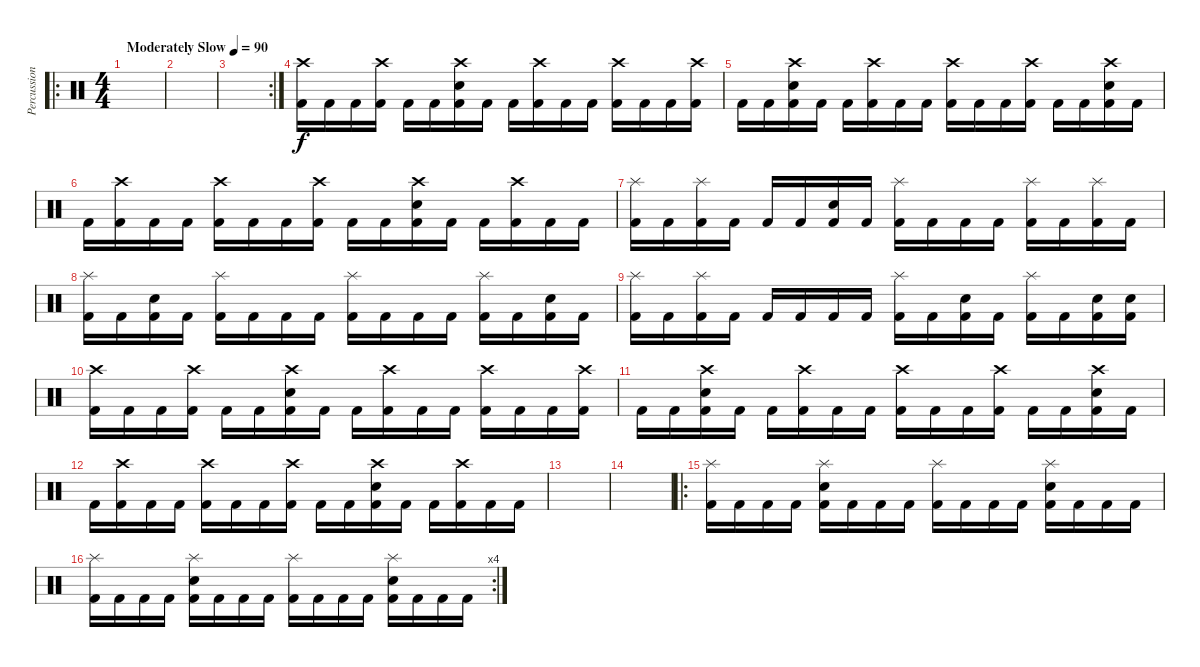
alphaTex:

\track ("Percussion" "Percussion") {instrument percussion}
\staff {score}
\articulation defaults
\ro
\ts (4 4)
\tempo (90 "Moderately Slow")
\clef neutral
\ks c
|
|
\rc 2
|
("Crash high (hit)" "Kick (hit) 2").16 "Kick (hit) 2".16 "Kick (hit) 2".16 ("Crash high (hit)" "Kick (hit) 2").16 "Kick (hit) 2".16 "Kick (hit) 2".16 ("Crash high (hit)" "Snare (hit) 2" "Kick (hit) 2").16 "Kick (hit) 2".16 "Kick (hit) 2".16 ("Crash high (hit)" "Kick (hit) 2").16 "Kick (hit) 2".16 "Kick (hit) 2".16 ("Crash high (hit)" "Kick (hit) 2").16 "Kick (hit) 2".16 "Kick (hit) 2".16 ("Crash high (hit)" "Kick (hit) 2").16 |
"Kick (hit) 2".16 "Kick (hit) 2".16 ("Crash high (hit)" "Snare (hit) 2" "Kick (hit) 2").16 "Kick (hit) 2".16 "Kick (hit) 2".16 ("Crash high (hit)" "Kick (hit) 2").16 "Kick (hit) 2".16 "Kick (hit) 2".16 ("Crash high (hit)" "Kick (hit) 2").16 "Kick (hit) 2".16 "Kick (hit) 2".16 ("Crash high (hit)" "Kick (hit) 2").16 "Kick (hit) 2".16 "Kick (hit) 2".16 ("Crash high (hit)" "Snare (hit) 2" "Kick (hit) 2").16 "Kick (hit) 2".16 |
"Kick (hit) 2".16 ("Crash high (hit)" "Kick (hit) 2").16 "Kick (hit) 2".16 "Kick (hit) 2".16 ("Crash high (hit)" "Kick (hit) 2").16 "Kick (hit) 2".16 "Kick (hit) 2".16 ("Crash high (hit)" "Kick (hit) 2").16 "Kick (hit) 2".16 "Kick (hit) 2".16 ("Crash high (hit)" "Snare (hit) 2" "Kick (hit) 2").16 "Kick (hit) 2".16 "Kick (hit) 2".16 ("Crash high (hit)" "Kick (hit) 2").16 "Kick (hit) 2".16 "Kick (hit) 2".16 |
("Splash (hit)" "Kick (hit) 2").16 "Kick (hit) 2".16 ("Splash (hit)" "Kick (hit) 2").16 "Kick (hit) 2".16 "Kick (hit) 2".16 "Kick (hit) 2".16 ("Snare (hit) 2" "Kick (hit) 2").16 "Kick (hit) 2".16 ("Splash (hit)" "Kick (hit) 2").16 "Kick (hit) 2".16 "Kick (hit) 2".16 "Kick (hit) 2".16 ("Splash (hit)" "Kick (hit) 2").16 "Kick (hit) 2".16 ("Splash (hit)" "Kick (hit) 2").16 "Kick (hit) 2".16 |
("Splash (hit)" "Kick (hit) 2").16 "Kick (hit) 2".16 ("Snare (hit) 2" "Kick (hit) 2").16 "Kick (hit) 2".16 ("Splash (hit)" "Kick (hit) 2").16 "Kick (hit) 2".16 "Kick (hit) 2".16 "Kick (hit) 2".16 ("Splash (hit)" "Kick (hit) 2").16 "Kick (hit) 2".16 "Kick (hit) 2".16 "Kick (hit) 2".16 ("Splash (hit)" "Kick (hit) 2").16 "Kick (hit) 2".16 ("Snare (hit) 2" "Kick (hit) 2").16 "Kick (hit) 2".16 |
("Splash (hit)" "Kick (hit) 2").16 "Kick (hit) 2".16 ("Splash (hit)" "Kick (hit) 2").16 "Kick (hit) 2".16 "Kick (hit) 2".16 "Kick (hit) 2".16 "Kick (hit) 2".16 "Kick (hit) 2".16 ("Splash (hit)" "Kick (hit) 2").16 "Kick (hit) 2".16 ("Snare (hit) 2" "Kick (hit) 2").16 "Kick (hit) 2".16 ("Splash (hit)" "Kick (hit) 2").16 "Kick (hit) 2".16 ("Snare (hit) 2" "Kick (hit) 2").16 ("Snare (hit) 2" "Kick (hit) 2").16 |
("Crash high (hit)" "Kick (hit) 2").16 "Kick (hit) 2".16 "Kick (hit) 2".16 ("Crash high (hit)" "Kick (hit) 2").16 "Kick (hit) 2".16 "Kick (hit) 2".16 ("Crash high (hit)" "Snare (hit) 2" "Kick (hit) 2").16 "Kick (hit) 2".16 "Kick (hit) 2".16 ("Crash high (hit)" "Kick (hit) 2").16 "Kick (hit) 2".16 "Kick (hit) 2".16 ("Crash high (hit)" "Kick (hit) 2").16 "Kick (hit) 2".16 "Kick (hit) 2".16 ("Crash high (hit)" "Kick (hit) 2").16 |
"Kick (hit) 2".16 "Kick (hit) 2".16 ("Crash high (hit)" "Snare (hit) 2" "Kick (hit) 2").16 "Kick (hit) 2".16 "Kick (hit) 2".16 ("Crash high (hit)" "Kick (hit) 2").16 "Kick (hit) 2".16 "Kick (hit) 2".16 ("Crash high (hit)" "Kick (hit) 2").16 "Kick (hit) 2".16 "Kick (hit) 2".16 ("Crash high (hit)" "Kick (hit) 2").16 "Kick (hit) 2".16 "Kick (hit) 2".16 ("Crash high (hit)" "Snare (hit) 2" "Kick (hit) 2").16 "Kick (hit) 2".16 |
"Kick (hit) 2".16 ("Crash high (hit)" "Kick (hit) 2").16 "Kick (hit) 2".16 "Kick (hit) 2".16 ("Crash high (hit)" "Kick (hit) 2").16 "Kick (hit) 2".16 "Kick (hit) 2".16 ("Crash high (hit)" "Kick (hit) 2").16 "Kick (hit) 2".16 "Kick (hit) 2".16 ("Crash high (hit)" "Snare (hit) 2" "Kick (hit) 2").16 "Kick (hit) 2".16 "Kick (hit) 2".16 ("Crash high (hit)" "Kick (hit) 2").16 "Kick (hit) 2".16 "Kick (hit) 2".16 |
|
|
\ro
("Splash (hit)" "Kick (hit) 2").16 "Kick (hit) 2".16 "Kick (hit) 2".16 "Kick (hit) 2".16 ("Splash (hit)" "Snare (hit) 2" "Kick (hit) 2").16 "Kick (hit) 2".16 "Kick (hit) 2".16 "Kick (hit) 2".16 ("Splash (hit)" "Kick (hit) 2").16 "Kick (hit) 2".16 "Kick (hit) 2".16 "Kick (hit) 2".16 ("Splash (hit)" "Snare (hit) 2" "Kick (hit) 2").16 "Kick (hit) 2".16 "Kick (hit) 2".16 "Kick (hit) 2".16 |
\rc 4
("Splash (hit)" "Kick (hit) 2").16 "Kick (hit) 2".16 "Kick (hit) 2".16 "Kick (hit) 2".16 ("Splash (hit)" "Snare (hit) 2" "Kick (hit) 2").16 "Kick (hit) 2".16 "Kick (hit) 2".16 "Kick (hit) 2".16 ("Splash (hit)" "Kick (hit) 2").16 "Kick (hit) 2".16 "Kick (hit) 2".16 "Kick (hit) 2".16 ("Splash (hit)" "Snare (hit) 2" "Kick (hit) 2").16 "Kick (hit) 2".16 "Kick (hit) 2".16 "Kick (hit) 2".16
